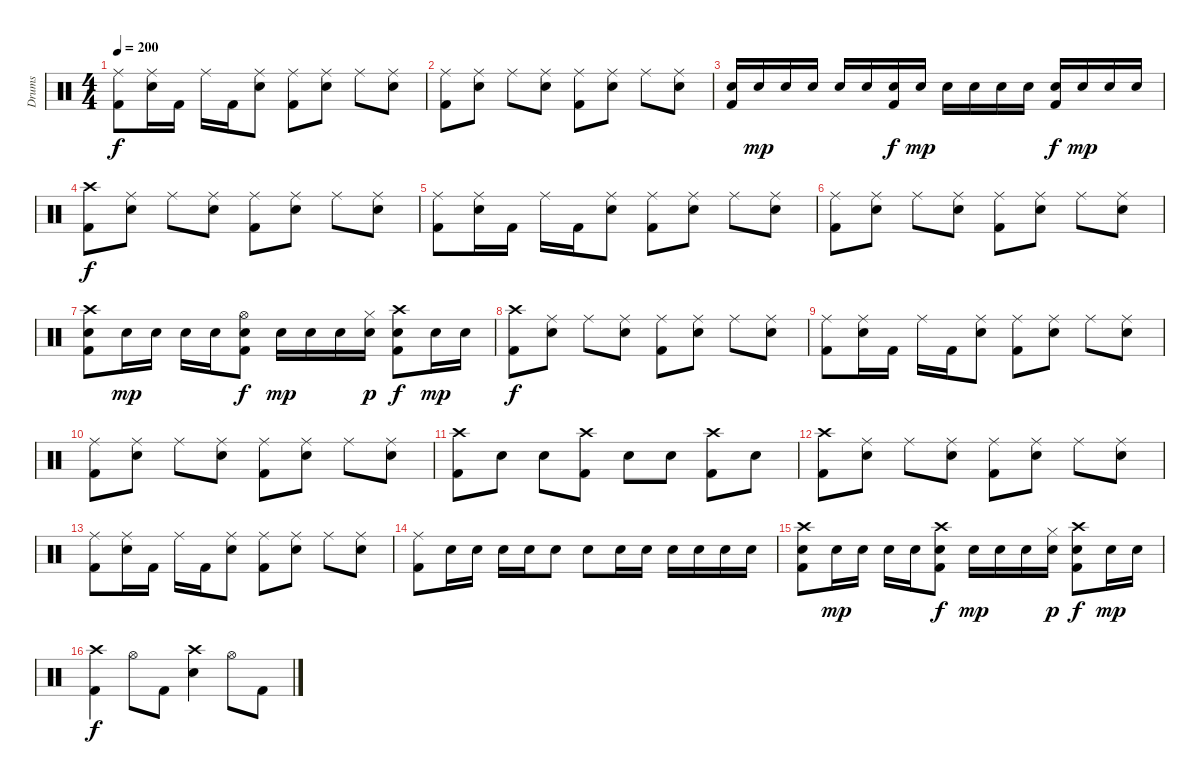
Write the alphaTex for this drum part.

\track ("Drums" "Drums") {instrument percussion}
\staff {score}
\articulation defaults
\ts (4 4)
\tempo 200
\clef neutral
\ks c
("Kick (hit) 2" "Ride (middle)").8{dy f} ("Electric Snare (hit)" "Ride (middle)").16 "Kick (hit) 2".16 "Ride (middle)".16 "Kick (hit) 2".16 ("Electric Snare (hit)" "Ride (middle)").8 ("Kick (hit) 2" "Ride (middle)").8 ("Electric Snare (hit)" "Ride (middle)").8 "Ride (middle)".8 ("Electric Snare (hit)" "Ride (middle)").8 |
("Kick (hit) 2" "Ride (middle)").8 ("Electric Snare (hit)" "Ride (middle)").8 "Ride (middle)".8 ("Electric Snare (hit)" "Ride (middle)").8 ("Kick (hit) 2" "Ride (middle)").8 ("Electric Snare (hit)" "Ride (middle)").8 "Ride (middle)".8 ("Electric Snare (hit)" "Ride (middle)").8 |
("Kick (hit) 2" "Electric Snare (hit)").16 "Electric Snare (hit)".16{dy mp} "Electric Snare (hit)".16 "Electric Snare (hit)".16 "Electric Snare (hit)".16 "Electric Snare (hit)".16 ("Kick (hit) 2" "Electric Snare (hit)").16{dy f} "Electric Snare (hit)".16{dy mp} "Electric Snare (hit)".16 "Electric Snare (hit)".16 "Electric Snare (hit)".16 "Electric Snare (hit)".16 ("Kick (hit) 2" "Electric Snare (hit)").16{dy f} "Electric Snare (hit)".16{dy mp} "Electric Snare (hit)".16 "Electric Snare (hit)".16 |
("Kick (hit) 2" "Crash high (hit)").8{dy f} ("Electric Snare (hit)" "Ride (middle)").8 "Ride (middle)".8 ("Electric Snare (hit)" "Ride (middle)").8 ("Kick (hit) 2" "Ride (middle)").8 ("Electric Snare (hit)" "Ride (middle)").8 "Ride (middle)".8 ("Electric Snare (hit)" "Ride (middle)").8 |
("Kick (hit) 2" "Ride (middle)").8 ("Electric Snare (hit)" "Ride (middle)").16 "Kick (hit) 2".16 "Ride (middle)".16 "Kick (hit) 2".16 ("Electric Snare (hit)" "Ride (middle)").8 ("Kick (hit) 2" "Ride (middle)").8 ("Electric Snare (hit)" "Ride (middle)").8 "Ride (middle)".8 ("Electric Snare (hit)" "Ride (middle)").8 |
("Kick (hit) 2" "Ride (middle)").8 ("Electric Snare (hit)" "Ride (middle)").8 "Ride (middle)".8 ("Electric Snare (hit)" "Ride (middle)").8 ("Kick (hit) 2" "Ride (middle)").8 ("Electric Snare (hit)" "Ride (middle)").8 "Ride (middle)".8 ("Electric Snare (hit)" "Ride (middle)").8 |
("Kick (hit) 2" "Electric Snare (hit)" "Crash high (hit)").8 "Electric Snare (hit)".16{dy mp} "Electric Snare (hit)".16 "Electric Snare (hit)".16 "Electric Snare (hit)".16 ("Kick (hit) 2" "Electric Snare (hit)" "Hi-Hat (open)").8{dy f} "Electric Snare (hit)".16{dy mp} "Electric Snare (hit)".16 "Electric Snare (hit)".16 ("Electric Snare (hit)" "Hi-Hat (closed)").16{dy p} ("Kick (hit) 2" "Electric Snare (hit)" "Crash high (hit)").8{dy f} "Electric Snare (hit)".16{dy mp} "Electric Snare (hit)".16 |
("Kick (hit) 2" "Crash high (hit)").8{dy f} ("Electric Snare (hit)" "Ride (middle)").8 "Ride (middle)".8 ("Electric Snare (hit)" "Ride (middle)").8 ("Kick (hit) 2" "Ride (middle)").8 ("Electric Snare (hit)" "Ride (middle)").8 "Ride (middle)".8 ("Electric Snare (hit)" "Ride (middle)").8 |
("Kick (hit) 2" "Ride (middle)").8 ("Electric Snare (hit)" "Ride (middle)").16 "Kick (hit) 2".16 "Ride (middle)".16 "Kick (hit) 2".16 ("Electric Snare (hit)" "Ride (middle)").8 ("Kick (hit) 2" "Ride (middle)").8 ("Electric Snare (hit)" "Ride (middle)").8 "Ride (middle)".8 ("Electric Snare (hit)" "Ride (middle)").8 |
("Kick (hit) 2" "Ride (middle)").8 ("Electric Snare (hit)" "Ride (middle)").8 "Ride (middle)".8 ("Electric Snare (hit)" "Ride (middle)").8 ("Kick (hit) 2" "Ride (middle)").8 ("Electric Snare (hit)" "Ride (middle)").8 "Ride (middle)".8 ("Electric Snare (hit)" "Ride (middle)").8 |
("Kick (hit) 2" "Crash high (hit)").8 "Electric Snare (hit)".8 "Electric Snare (hit)".8 ("Kick (hit) 2" "Crash high (hit)").8 "Electric Snare (hit)".8 "Electric Snare (hit)".8 ("Kick (hit) 2" "Crash high (hit)").8 "Electric Snare (hit)".8 |
("Kick (hit) 2" "Crash high (hit)").8 ("Electric Snare (hit)" "Ride (middle)").8 "Ride (middle)".8 ("Electric Snare (hit)" "Ride (middle)").8 ("Kick (hit) 2" "Ride (middle)").8 ("Electric Snare (hit)" "Ride (middle)").8 "Ride (middle)".8 ("Electric Snare (hit)" "Ride (middle)").8 |
("Kick (hit) 2" "Ride (middle)").8 ("Electric Snare (hit)" "Ride (middle)").16 "Kick (hit) 2".16 "Ride (middle)".16 "Kick (hit) 2".16 ("Electric Snare (hit)" "Ride (middle)").8 ("Kick (hit) 2" "Ride (middle)").8 ("Electric Snare (hit)" "Ride (middle)").8 "Ride (middle)".8 ("Electric Snare (hit)" "Ride (middle)").8 |
("Kick (hit) 2" "Ride (middle)").8 "Electric Snare (hit)".16 "Electric Snare (hit)".16 "Electric Snare (hit)".16 "Electric Snare (hit)".16 "Electric Snare (hit)".8 "Electric Snare (hit)".8 "Electric Snare (hit)".16 "Electric Snare (hit)".16 "Electric Snare (hit)".16 "Electric Snare (hit)".16 "Electric Snare (hit)".16 "Electric Snare (hit)".16 |
("Kick (hit) 2" "Electric Snare (hit)" "Crash high (hit)").8 "Electric Snare (hit)".16{dy mp} "Electric Snare (hit)".16 "Electric Snare (hit)".16 "Electric Snare (hit)".16 ("Kick (hit) 2" "Electric Snare (hit)" "Crash high (hit)").8{dy f} "Electric Snare (hit)".16{dy mp} "Electric Snare (hit)".16 "Electric Snare (hit)".16 ("Electric Snare (hit)" "Hi-Hat (closed)").16{dy p} ("Kick (hit) 2" "Electric Snare (hit)" "Crash high (hit)").8{dy f} "Electric Snare (hit)".16{dy mp} "Electric Snare (hit)".16 |
("Kick (hit) 2" "Crash high (hit)").4{dy f} "Hi-Hat (open)".8 "Kick (hit) 2".8 ("Electric Snare (hit)" "Crash high (hit)").4 "Hi-Hat (open)".8 "Kick (hit) 2".8
